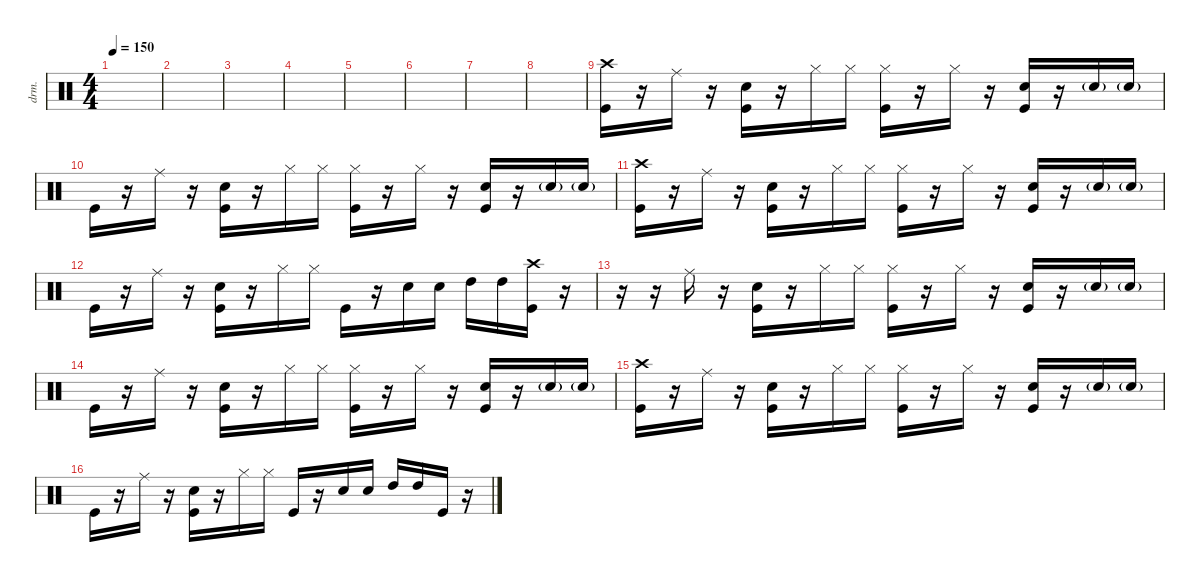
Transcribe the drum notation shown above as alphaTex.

\defaultSystemsLayout 4
\hideDynamics
\bracketExtendMode nobrackets
\track ("Drumkit" "drm.") {instrument percussion}
\staff {score}
\articulation defaults
\ts (4 4)
\tempo 150
\clef neutral
\ks c
|
|
|
|
|
|
|
|
("Kick (hit)" "Crash high (hit)").16{beam Down} r.16{beam Down} "Ride (middle)".16{beam Down} r.16{beam Down} ("Snare (hit) 2" "Kick (hit)").16{beam Down} r.16{beam Down} "Hi-Hat (closed)".16{beam Down} "Hi-Hat (closed)".16{beam Down} ("Kick (hit)" "Hi-Hat (closed)").16{beam Down} r.16{beam Down} "Hi-Hat (closed)".16{beam Down} r.16{beam Down} ("Kick (hit)" "Snare (hit) 2").16{beam Up} r.16{beam Up} "Snare (hit) 2"{g}.16{beam Up} "Snare (hit) 2"{g}.16{beam Up} |
"Kick (hit)".16{beam Down} r.16{beam Down} "Ride (middle)".16{beam Down} r.16{beam Down} ("Snare (hit) 2" "Kick (hit)").16{beam Down} r.16{beam Down} "Hi-Hat (closed)".16{beam Down} "Hi-Hat (closed)".16{beam Down} ("Kick (hit)" "Hi-Hat (closed)").16{beam Down} r.16{beam Down} "Hi-Hat (closed)".16{beam Down} r.16{beam Down} ("Kick (hit)" "Snare (hit) 2").16{beam Up} r.16{beam Up} "Snare (hit) 2"{g}.16{beam Up} "Snare (hit) 2"{g}.16{beam Up} |
("Kick (hit)" "Crash high (hit)").16{beam Down} r.16{beam Down} "Ride (middle)".16{beam Down} r.16{beam Down} ("Snare (hit) 2" "Kick (hit)").16{beam Down} r.16{beam Down} "Hi-Hat (closed)".16{beam Down} "Hi-Hat (closed)".16{beam Down} ("Kick (hit)" "Hi-Hat (closed)").16{beam Down} r.16{beam Down} "Hi-Hat (closed)".16{beam Down} r.16{beam Down} ("Kick (hit)" "Snare (hit) 2").16{beam Up} r.16{beam Up} "Snare (hit) 2"{g}.16{beam Up} "Snare (hit) 2"{g}.16{beam Up} |
"Kick (hit)".16{beam Down} r.16{beam Down} "Ride (middle)".16{beam Down} r.16{beam Down} ("Snare (hit) 2" "Kick (hit)").16{beam Down} r.16{beam Down} "Hi-Hat (closed)".16{beam Down} "Hi-Hat (closed)".16{beam Down} "Kick (hit)".16{beam Down} r.16{beam Down} "Snare (hit) 2".16{beam Down} "Snare (hit) 2".16{beam Down} "High Tom (hit)".16{beam Down} "High Tom (hit)".16{beam Down} ("Kick (hit)" "Crash high (hit)").16{beam Down} r.16{beam Down} |
r.16{beam Down} r.16{beam Down} "Ride (middle)".16{beam Down} r.16{beam Down} ("Snare (hit) 2" "Kick (hit)").16{beam Down} r.16{beam Down} "Hi-Hat (closed)".16{beam Down} "Hi-Hat (closed)".16{beam Down} ("Kick (hit)" "Hi-Hat (closed)").16{beam Down} r.16{beam Down} "Hi-Hat (closed)".16{beam Down} r.16{beam Down} ("Kick (hit)" "Snare (hit) 2").16{beam Up} r.16{beam Up} "Snare (hit) 2"{g}.16{beam Up} "Snare (hit) 2"{g}.16{beam Up} |
"Kick (hit)".16{beam Down} r.16{beam Down} "Ride (middle)".16{beam Down} r.16{beam Down} ("Snare (hit) 2" "Kick (hit)").16{beam Down} r.16{beam Down} "Hi-Hat (closed)".16{beam Down} "Hi-Hat (closed)".16{beam Down} ("Kick (hit)" "Hi-Hat (closed)").16{beam Down} r.16{beam Down} "Hi-Hat (closed)".16{beam Down} r.16{beam Down} ("Kick (hit)" "Snare (hit) 2").16{beam Up} r.16{beam Up} "Snare (hit) 2"{g}.16{beam Up} "Snare (hit) 2"{g}.16{beam Up} |
("Kick (hit)" "Crash high (hit)").16{beam Down} r.16{beam Down} "Ride (middle)".16{beam Down} r.16{beam Down} ("Snare (hit) 2" "Kick (hit)").16{beam Down} r.16{beam Down} "Hi-Hat (closed)".16{beam Down} "Hi-Hat (closed)".16{beam Down} ("Kick (hit)" "Hi-Hat (closed)").16{beam Down} r.16{beam Down} "Hi-Hat (closed)".16{beam Down} r.16{beam Down} ("Kick (hit)" "Snare (hit) 2").16{beam Up} r.16{beam Up} "Snare (hit) 2"{g}.16{beam Up} "Snare (hit) 2"{g}.16{beam Up} |
"Kick (hit)".16{beam Down} r.16{beam Down} "Ride (middle)".16{beam Down} r.16{beam Down} ("Snare (hit) 2" "Kick (hit)").16{beam Down} r.16{beam Down} "Hi-Hat (closed)".16{beam Down} "Hi-Hat (closed)".16{beam Down} "Kick (hit)".16{beam Up} r.16{beam Up} "Snare (hit) 2".16{beam Up} "Snare (hit) 2".16{beam Up} "High Tom (hit)".16{beam Up} "High Tom (hit)".16{beam Up} "Kick (hit)".16{beam Up} r.16{beam Down}
